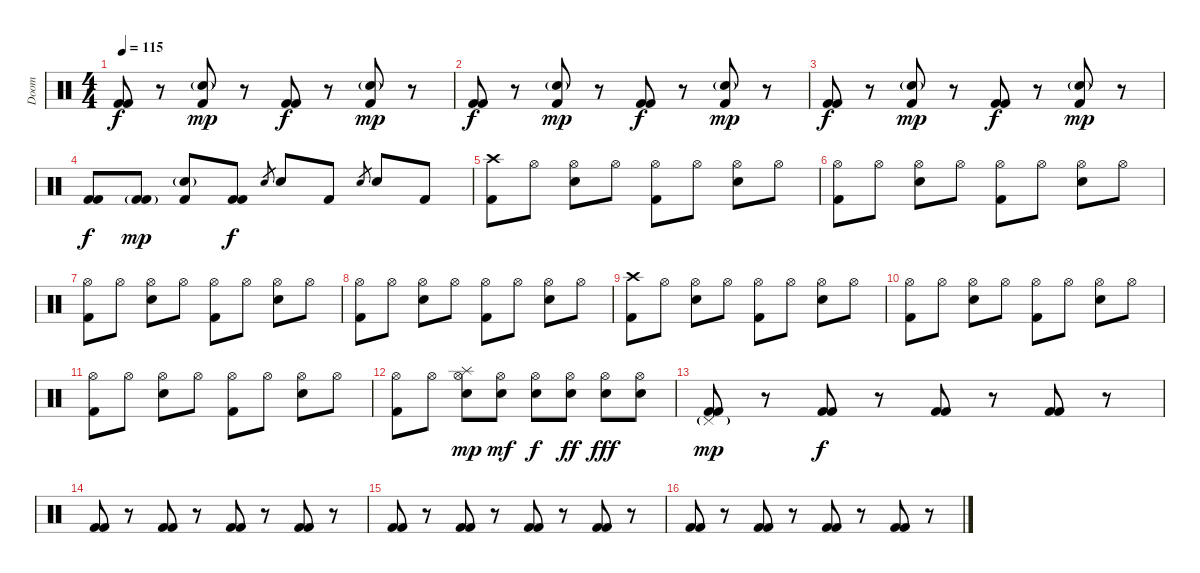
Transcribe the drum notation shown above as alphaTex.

\track ("Doom" "Doom") {instrument percussion}
\staff {score}
\articulation defaults
\ts (4 4)
\tempo 115
\clef neutral
\ks c
("Kick (hit) 2" "Kick (hit) 2").8{dy f} r.8 ("Electric Snare (hit)"{g} "Kick (hit) 2").8{dy mp} r.8 ("Kick (hit) 2" "Kick (hit) 2").8{dy f} r.8 ("Electric Snare (hit)"{g} "Kick (hit) 2").8{dy mp} r.8 |
("Kick (hit) 2" "Kick (hit) 2").8{dy f} r.8 ("Electric Snare (hit)"{g} "Kick (hit) 2").8{dy mp} r.8 ("Kick (hit) 2" "Kick (hit) 2").8{dy f} r.8 ("Electric Snare (hit)"{g} "Kick (hit) 2").8{dy mp} r.8 |
("Kick (hit) 2" "Kick (hit) 2").8{dy f} r.8 ("Electric Snare (hit)"{g} "Kick (hit) 2").8{dy mp} r.8 ("Kick (hit) 2" "Kick (hit) 2").8{dy f} r.8 ("Electric Snare (hit)"{g} "Kick (hit) 2").8{dy mp} r.8 |
("Kick (hit) 2" "Kick (hit) 2").8{dy f} ("Kick (hit) 2"{g} "Kick (hit) 2"{g}).8{dy mp} ("Electric Snare (hit)"{g} "Kick (hit) 2").8 ("Kick (hit) 2" "Kick (hit) 2").8{dy f} "Electric Snare (hit)".8{gr} "Electric Snare (hit)".8 "Kick (hit) 2".8 "Electric Snare (hit)".8{gr} "Electric Snare (hit)".8 "Kick (hit) 2".8 |
("Crash high (hit)" "Kick (hit) 2").8 "Hi-Hat (open)".8 ("Hi-Hat (open)" "Electric Snare (hit)").8 "Hi-Hat (open)".8 ("Hi-Hat (open)" "Kick (hit) 2").8 "Hi-Hat (open)".8 ("Hi-Hat (open)" "Electric Snare (hit)").8 "Hi-Hat (open)".8 |
("Hi-Hat (open)" "Kick (hit) 2").8 "Hi-Hat (open)".8 ("Hi-Hat (open)" "Electric Snare (hit)").8 "Hi-Hat (open)".8 ("Hi-Hat (open)" "Kick (hit) 2").8 "Hi-Hat (open)".8 ("Hi-Hat (open)" "Electric Snare (hit)").8 "Hi-Hat (open)".8 |
("Hi-Hat (open)" "Kick (hit) 2").8 "Hi-Hat (open)".8 ("Hi-Hat (open)" "Electric Snare (hit)").8 "Hi-Hat (open)".8 ("Hi-Hat (open)" "Kick (hit) 2").8 "Hi-Hat (open)".8 ("Hi-Hat (open)" "Electric Snare (hit)").8 "Hi-Hat (open)".8 |
("Hi-Hat (open)" "Kick (hit) 2").8 "Hi-Hat (open)".8 ("Hi-Hat (open)" "Electric Snare (hit)").8 "Hi-Hat (open)".8 ("Hi-Hat (open)" "Kick (hit) 2").8 "Hi-Hat (open)".8 ("Hi-Hat (open)" "Electric Snare (hit)").8 "Hi-Hat (open)".8 |
("Crash high (hit)" "Kick (hit) 2").8 "Hi-Hat (open)".8 ("Hi-Hat (open)" "Electric Snare (hit)").8 "Hi-Hat (open)".8 ("Hi-Hat (open)" "Kick (hit) 2").8 "Hi-Hat (open)".8 ("Hi-Hat (open)" "Electric Snare (hit)").8 "Hi-Hat (open)".8 |
("Hi-Hat (open)" "Kick (hit) 2").8 "Hi-Hat (open)".8 ("Hi-Hat (open)" "Electric Snare (hit)").8 "Hi-Hat (open)".8 ("Hi-Hat (open)" "Kick (hit) 2").8 "Hi-Hat (open)".8 ("Hi-Hat (open)" "Electric Snare (hit)").8 "Hi-Hat (open)".8 |
("Hi-Hat (open)" "Kick (hit) 2").8 "Hi-Hat (open)".8 ("Hi-Hat (open)" "Electric Snare (hit)").8 "Hi-Hat (open)".8 ("Hi-Hat (open)" "Kick (hit) 2").8 "Hi-Hat (open)".8 ("Hi-Hat (open)" "Electric Snare (hit)").8 "Hi-Hat (open)".8 |
("Hi-Hat (open)" "Kick (hit) 2").8 "Hi-Hat (open)".8 ("Splash (hit)" "Hi-Hat (open)" "Electric Snare (hit)").8{dy mp} ("Hi-Hat (open)" "Electric Snare (hit)").8{dy mf} ("Hi-Hat (open)" "Electric Snare (hit)").8{dy f} ("Hi-Hat (open)" "Electric Snare (hit)").8{dy ff} ("Hi-Hat (open)" "Electric Snare (hit)").8{dy fff} ("Hi-Hat (open)" "Electric Snare (hit)").8 |
("Pedal Hi-Hat (hit)"{g} "Kick (hit) 2" "Kick (hit) 2").8{dy mp} r.8 ("Kick (hit) 2" "Kick (hit) 2").8{dy f} r.8 ("Kick (hit) 2" "Kick (hit) 2").8 r.8 ("Kick (hit) 2" "Kick (hit) 2").8 r.8 |
("Kick (hit) 2" "Kick (hit) 2").8 r.8 ("Kick (hit) 2" "Kick (hit) 2").8 r.8 ("Kick (hit) 2" "Kick (hit) 2").8 r.8 ("Kick (hit) 2" "Kick (hit) 2").8 r.8 |
("Kick (hit) 2" "Kick (hit) 2").8 r.8 ("Kick (hit) 2" "Kick (hit) 2").8 r.8 ("Kick (hit) 2" "Kick (hit) 2").8 r.8 ("Kick (hit) 2" "Kick (hit) 2").8 r.8 |
("Kick (hit) 2" "Kick (hit) 2").8 r.8 ("Kick (hit) 2" "Kick (hit) 2").8 r.8 ("Kick (hit) 2" "Kick (hit) 2").8 r.8 ("Kick (hit) 2" "Kick (hit) 2").8 r.8
